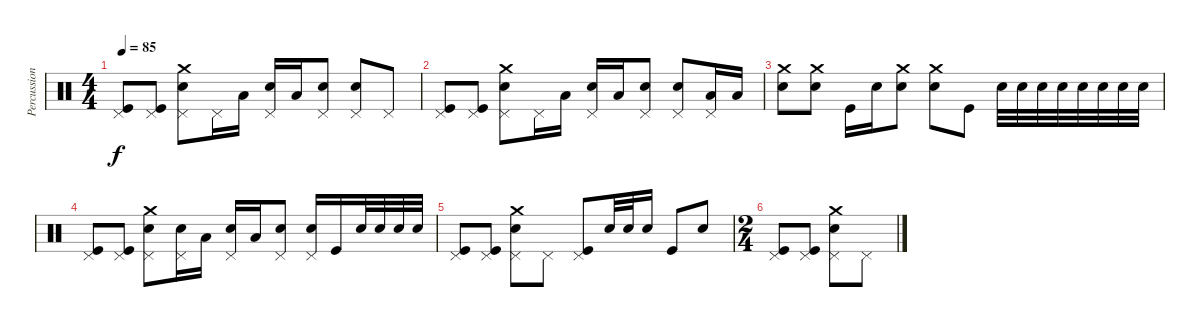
\track ("Percussion" "Percussion") {instrument percussion}
\staff {score}
\articulation defaults
\ts (4 4)
\tempo 85
\clef neutral
\ks c
("Pedal Hi-Hat (hit)" "Kick (hit)").8{dy f} ("Pedal Hi-Hat (hit)" "Kick (hit)").8 ("Pedal Hi-Hat (hit)" "Snare (hit) 2" "Crash medium (hit)").8 "Pedal Hi-Hat (hit)".16 "Low Floor Tom (hit)".16 ("Pedal Hi-Hat (hit)" "Snare (hit) 2").16 "Low Floor Tom (hit)".16 ("Pedal Hi-Hat (hit)" "Snare (hit) 2").8 ("Pedal Hi-Hat (hit)" "Snare (hit) 2").8 "Pedal Hi-Hat (hit)".8 |
("Pedal Hi-Hat (hit)" "Kick (hit)").8 ("Pedal Hi-Hat (hit)" "Kick (hit)").8 ("Pedal Hi-Hat (hit)" "Snare (hit) 2" "Crash medium (hit)").8 "Pedal Hi-Hat (hit)".16 "Low Floor Tom (hit)".16 ("Pedal Hi-Hat (hit)" "Snare (hit) 2").16 "Low Floor Tom (hit)".16 ("Pedal Hi-Hat (hit)" "Snare (hit) 2").8 ("Pedal Hi-Hat (hit)" "Snare (hit) 2").8 ("Pedal Hi-Hat (hit)" "Low Floor Tom (hit)").16 "Low Floor Tom (hit)".16 |
("Snare (hit) 2" "Crash medium (hit)").8 ("Snare (hit) 2" "Crash medium (hit)").8 "Kick (hit)".16 "Snare (hit) 2".16 ("Snare (hit) 2" "Crash medium (hit)").8 ("Snare (hit) 2" "Crash medium (hit)").8 "Kick (hit)".8 "Snare (hit) 2".32 "Snare (hit) 2".32 "Snare (hit) 2".32 "Snare (hit) 2".32 "Snare (hit) 2".32 "Snare (hit) 2".32 "Snare (hit) 2".32 "Snare (hit) 2".32 |
("Pedal Hi-Hat (hit)" "Kick (hit)").8 ("Pedal Hi-Hat (hit)" "Kick (hit)").8 ("Pedal Hi-Hat (hit)" "Snare (hit) 2" "Crash medium (hit)").8 ("Pedal Hi-Hat (hit)" "Snare (hit) 2").16 "Low Floor Tom (hit)".16 ("Pedal Hi-Hat (hit)" "Snare (hit) 2").16 "Low Floor Tom (hit)".16 ("Pedal Hi-Hat (hit)" "Snare (hit) 2").8 ("Pedal Hi-Hat (hit)" "Snare (hit) 2").16 "Kick (hit)".16 "Snare (hit) 2".32 "Snare (hit) 2".32 "Snare (hit) 2".32 "Snare (hit) 2".32 |
("Pedal Hi-Hat (hit)" "Kick (hit)").8 ("Pedal Hi-Hat (hit)" "Kick (hit)").8 ("Pedal Hi-Hat (hit)" "Snare (hit) 2" "Crash medium (hit)").8 "Pedal Hi-Hat (hit)".8 ("Pedal Hi-Hat (hit)" "Kick (hit)").8 "Snare (hit) 2".32 "Snare (hit) 2".32 "Snare (hit) 2".16 "Kick (hit)".8 "Snare (hit) 2".8 |
\ts (2 4)
("Pedal Hi-Hat (hit)" "Kick (hit)").8 ("Pedal Hi-Hat (hit)" "Kick (hit)").8 ("Pedal Hi-Hat (hit)" "Snare (hit) 2" "Crash medium (hit)").8 "Pedal Hi-Hat (hit)".8
